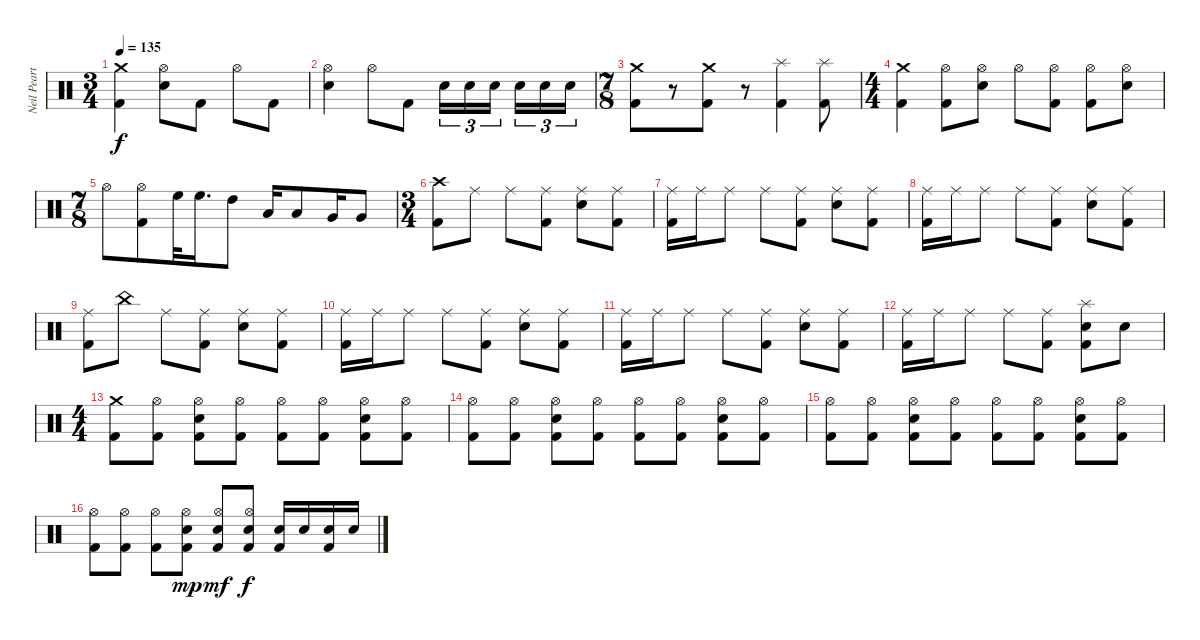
\track ("Neil Peart" "Neil Peart") {instrument percussion}
\staff {score}
\articulation defaults
\ts (3 4)
\tempo 135
\clef neutral
\ks c
("Crash medium (hit)" "Kick (hit) 2").4{dy f} ("Hi-Hat (open)" "Snare (hit) 2").8 "Kick (hit) 2".8 "Hi-Hat (open)".8 "Kick (hit) 2".8 |
("Hi-Hat (open)" "Snare (hit) 2").4 "Hi-Hat (open)".8 "Kick (hit) 2".8 "Snare (hit) 2".16{tu (3 2)} "Snare (hit) 2".16{tu (3 2)} "Snare (hit) 2".16{tu (3 2) beam splitsecondary} "Snare (hit) 2".16{tu (3 2)} "Snare (hit) 2".16{tu (3 2)} "Snare (hit) 2".16{tu (3 2)} |
\ts (7 8)
("Crash medium (hit)" "Kick (hit) 2").8 r.8{volume 0} ("Crash medium (hit)" "Kick (hit) 2").8{volume 14} r.8 ("Splash (hit)" "Kick (hit) 2").4 ("Splash (hit)" "Kick (hit) 2").8 |
\ts (4 4)
("Crash medium (hit)" "Kick (hit) 2").4 ("Hi-Hat (open)" "Kick (hit) 2").8 ("Hi-Hat (open)" "Snare (hit) 2").8 "Hi-Hat (open)".8 ("Hi-Hat (open)" "Kick (hit) 2").8 ("Hi-Hat (open)" "Kick (hit) 2").8 ("Hi-Hat (open)" "Snare (hit) 2").8 |
\ts (7 8)
"Hi-Hat (open)".8 ("Hi-Hat (open)" "Kick (hit) 2").8 "High Floor Tom (hit)".32 "High Floor Tom (hit)".16{d} "High Tom (hit)".8 "Low Tom (hit)".16 "Low Tom (hit)".8 "Very Low Tom (hit)".16 "Very Low Tom (hit)".8 |
\ts (3 4)
("Crash high (hit)" "Kick (hit) 2").8 "Ride (middle)".8 "Ride (middle)".8 ("Ride (middle)" "Kick (hit) 2").8 ("Ride (middle)" "Snare (hit) 2").8 ("Ride (middle)" "Kick (hit) 2").8 |
("Ride (middle)" "Kick (hit) 2").16 "Ride (middle)".16 "Ride (middle)".8 "Ride (middle)".8 ("Ride (middle)" "Kick (hit) 2").8 ("Ride (middle)" "Snare (hit) 2").8 ("Ride (middle)" "Kick (hit) 2").8 |
("Ride (middle)" "Kick (hit) 2").16 "Ride (middle)".16 "Ride (middle)".8 "Ride (middle)".8 ("Ride (middle)" "Kick (hit) 2").8 ("Ride (middle)" "Snare (hit) 2").8 ("Ride (middle)" "Kick (hit) 2").8 |
("Ride (middle)" "Kick (hit) 2").8 "China (hit)".8 "Ride (middle)".8 ("Ride (middle)" "Kick (hit) 2").8 ("Ride (middle)" "Snare (hit) 2").8 ("Ride (middle)" "Kick (hit) 2").8 |
("Ride (middle)" "Kick (hit) 2").16 "Ride (middle)".16 "Ride (middle)".8 "Ride (middle)".8 ("Ride (middle)" "Kick (hit) 2").8 ("Ride (middle)" "Snare (hit) 2").8 ("Ride (middle)" "Kick (hit) 2").8 |
("Ride (middle)" "Kick (hit) 2").16 "Ride (middle)".16 "Ride (middle)".8 "Ride (middle)".8 ("Ride (middle)" "Kick (hit) 2").8 ("Ride (middle)" "Snare (hit) 2").8 ("Ride (middle)" "Kick (hit) 2").8 |
("Ride (middle)" "Kick (hit) 2").16 "Ride (middle)".16 "Ride (middle)".8 "Ride (middle)".8 ("Ride (middle)" "Kick (hit) 2").8 ("Splash (hit)" "Snare (hit) 2" "Kick (hit) 2").8 "Snare (hit) 2".8 |
\ts (4 4)
("Crash medium (hit)" "Kick (hit) 2").8 ("Hi-Hat (open)" "Kick (hit) 2").8 ("Hi-Hat (open)" "Snare (hit) 2" "Kick (hit) 2").8 ("Hi-Hat (open)" "Kick (hit) 2").8 ("Hi-Hat (open)" "Kick (hit) 2").8 ("Hi-Hat (open)" "Kick (hit) 2").8 ("Hi-Hat (open)" "Snare (hit) 2" "Kick (hit) 2").8 ("Hi-Hat (open)" "Kick (hit) 2").8 |
("Hi-Hat (open)" "Kick (hit) 2").8 ("Hi-Hat (open)" "Kick (hit) 2").8 ("Hi-Hat (open)" "Snare (hit) 2" "Kick (hit) 2").8 ("Hi-Hat (open)" "Kick (hit) 2").8 ("Hi-Hat (open)" "Kick (hit) 2").8 ("Hi-Hat (open)" "Kick (hit) 2").8 ("Hi-Hat (open)" "Snare (hit) 2" "Kick (hit) 2").8 ("Hi-Hat (open)" "Kick (hit) 2").8 |
("Hi-Hat (open)" "Kick (hit) 2").8 ("Hi-Hat (open)" "Kick (hit) 2").8 ("Hi-Hat (open)" "Snare (hit) 2" "Kick (hit) 2").8 ("Hi-Hat (open)" "Kick (hit) 2").8 ("Hi-Hat (open)" "Kick (hit) 2").8 ("Hi-Hat (open)" "Kick (hit) 2").8 ("Hi-Hat (open)" "Snare (hit) 2" "Kick (hit) 2").8 ("Hi-Hat (open)" "Kick (hit) 2").8 |
("Hi-Hat (open)" "Kick (hit) 2").8 ("Hi-Hat (open)" "Kick (hit) 2").8 ("Hi-Hat (open)" "Kick (hit) 2").8 ("Hi-Hat (open)" "Snare (hit) 2" "Kick (hit) 2").8{dy mp} ("Hi-Hat (open)" "Snare (hit) 2" "Kick (hit) 2").8{dy mf} ("Hi-Hat (open)" "Snare (hit) 2" "Kick (hit) 2").8{dy f} ("Snare (hit) 2" "Kick (hit) 2").16 "Snare (hit) 2".16 ("Snare (hit) 2" "Kick (hit) 2").16 "Snare (hit) 2".16
